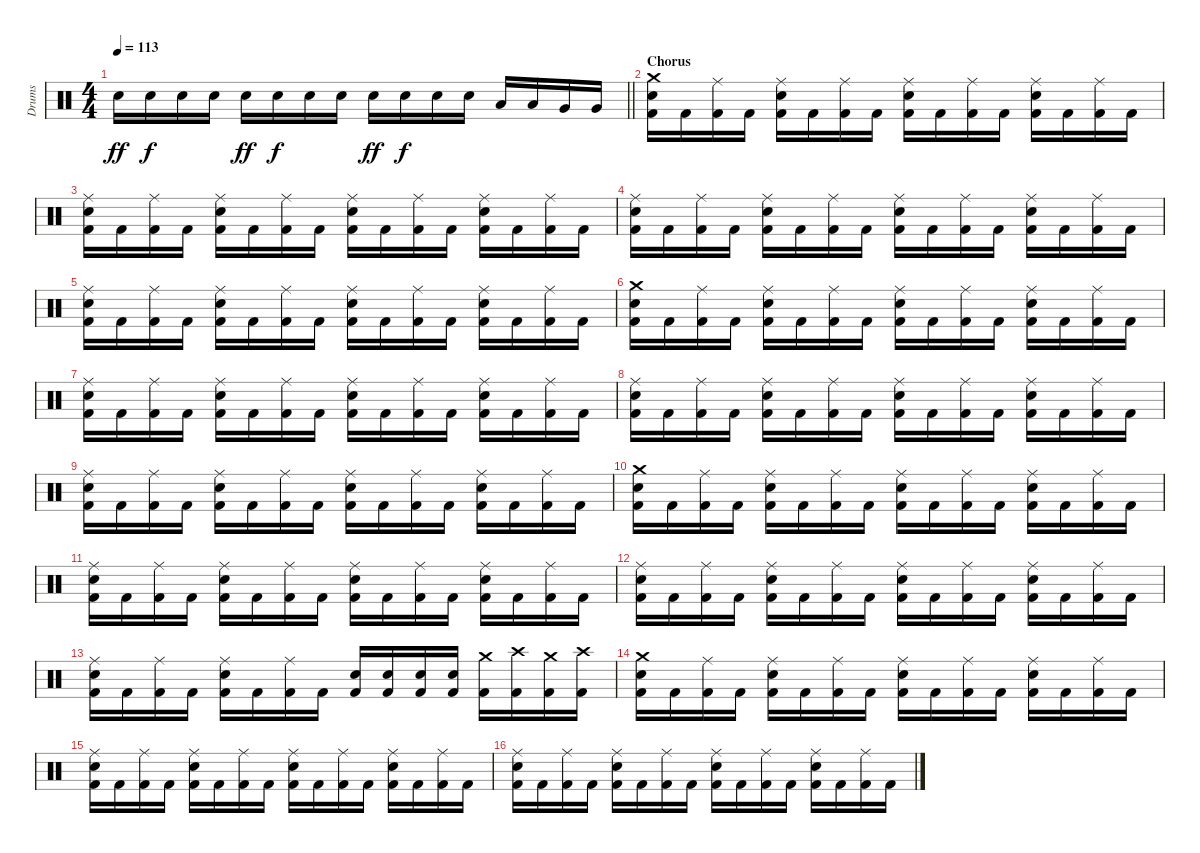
\track ("Drums" "Drums") {instrument percussion}
\staff {score}
\articulation defaults
\ts (4 4)
\tempo 113
\clef neutral
\barLineRight lightlight
\ks c "Snare (hit) 2".16{dy ff} "Snare (hit) 2".16{dy f} "Snare (hit) 2".16 "Snare (hit) 2".16 "Snare (hit) 2".16{dy ff} "Snare (hit) 2".16{dy f} "Snare (hit) 2".16 "Snare (hit) 2".16 "Snare (hit) 2".16{dy ff} "Snare (hit) 2".16{dy f} "Snare (hit) 2".16 "Snare (hit) 2".16 "Low Tom (hit)".16 "Low Tom (hit)".16 "Very Low Tom (hit)".16 "Very Low Tom (hit)".16
|
\section ("" "Chorus")
("Kick (hit) 2" "Snare (hit) 2" "Crash medium (hit)").16 "Kick (hit) 2".16 ("Kick (hit) 2" "Ride (middle)").16 "Kick (hit) 2".16 ("Kick (hit) 2" "Snare (hit) 2" "Ride (middle)").16 "Kick (hit) 2".16 ("Kick (hit) 2" "Ride (middle)").16 "Kick (hit) 2".16 ("Kick (hit) 2" "Snare (hit) 2" "Ride (middle)").16 "Kick (hit) 2".16 ("Kick (hit) 2" "Ride (middle)").16 "Kick (hit) 2".16 ("Kick (hit) 2" "Snare (hit) 2" "Ride (middle)").16 "Kick (hit) 2".16 ("Kick (hit) 2" "Ride (middle)").16 "Kick (hit) 2".16 |
("Kick (hit) 2" "Snare (hit) 2" "Ride (middle)").16 "Kick (hit) 2".16 ("Kick (hit) 2" "Ride (middle)").16 "Kick (hit) 2".16 ("Kick (hit) 2" "Snare (hit) 2" "Ride (middle)").16 "Kick (hit) 2".16 ("Kick (hit) 2" "Ride (middle)").16 "Kick (hit) 2".16 ("Kick (hit) 2" "Snare (hit) 2" "Ride (middle)").16 "Kick (hit) 2".16 ("Kick (hit) 2" "Ride (middle)").16 "Kick (hit) 2".16 ("Kick (hit) 2" "Snare (hit) 2" "Ride (middle)").16 "Kick (hit) 2".16 ("Kick (hit) 2" "Ride (middle)").16 "Kick (hit) 2".16 |
("Kick (hit) 2" "Snare (hit) 2" "Ride (middle)").16 "Kick (hit) 2".16 ("Kick (hit) 2" "Ride (middle)").16 "Kick (hit) 2".16 ("Kick (hit) 2" "Snare (hit) 2" "Ride (middle)").16 "Kick (hit) 2".16 ("Kick (hit) 2" "Ride (middle)").16 "Kick (hit) 2".16 ("Kick (hit) 2" "Snare (hit) 2" "Ride (middle)").16 "Kick (hit) 2".16 ("Kick (hit) 2" "Ride (middle)").16 "Kick (hit) 2".16 ("Kick (hit) 2" "Snare (hit) 2" "Ride (middle)").16 "Kick (hit) 2".16 ("Kick (hit) 2" "Ride (middle)").16 "Kick (hit) 2".16 |
("Kick (hit) 2" "Snare (hit) 2" "Ride (middle)").16 "Kick (hit) 2".16 ("Kick (hit) 2" "Ride (middle)").16 "Kick (hit) 2".16 ("Kick (hit) 2" "Snare (hit) 2" "Ride (middle)").16 "Kick (hit) 2".16 ("Kick (hit) 2" "Ride (middle)").16 "Kick (hit) 2".16 ("Kick (hit) 2" "Snare (hit) 2" "Ride (middle)").16 "Kick (hit) 2".16 ("Kick (hit) 2" "Ride (middle)").16 "Kick (hit) 2".16 ("Kick (hit) 2" "Snare (hit) 2" "Ride (middle)").16 "Kick (hit) 2".16 ("Kick (hit) 2" "Ride (middle)").16 "Kick (hit) 2".16 |
("Kick (hit) 2" "Snare (hit) 2" "Crash medium (hit)").16 "Kick (hit) 2".16 ("Kick (hit) 2" "Ride (middle)").16 "Kick (hit) 2".16 ("Kick (hit) 2" "Snare (hit) 2" "Ride (middle)").16 "Kick (hit) 2".16 ("Kick (hit) 2" "Ride (middle)").16 "Kick (hit) 2".16 ("Kick (hit) 2" "Snare (hit) 2" "Ride (middle)").16 "Kick (hit) 2".16 ("Kick (hit) 2" "Ride (middle)").16 "Kick (hit) 2".16 ("Kick (hit) 2" "Snare (hit) 2" "Ride (middle)").16 "Kick (hit) 2".16 ("Kick (hit) 2" "Ride (middle)").16 "Kick (hit) 2".16 |
("Kick (hit) 2" "Snare (hit) 2" "Ride (middle)").16 "Kick (hit) 2".16 ("Kick (hit) 2" "Ride (middle)").16 "Kick (hit) 2".16 ("Kick (hit) 2" "Snare (hit) 2" "Ride (middle)").16 "Kick (hit) 2".16 ("Kick (hit) 2" "Ride (middle)").16 "Kick (hit) 2".16 ("Kick (hit) 2" "Snare (hit) 2" "Ride (middle)").16 "Kick (hit) 2".16 ("Kick (hit) 2" "Ride (middle)").16 "Kick (hit) 2".16 ("Kick (hit) 2" "Snare (hit) 2" "Ride (middle)").16 "Kick (hit) 2".16 ("Kick (hit) 2" "Ride (middle)").16 "Kick (hit) 2".16 |
("Kick (hit) 2" "Snare (hit) 2" "Ride (middle)").16 "Kick (hit) 2".16 ("Kick (hit) 2" "Ride (middle)").16 "Kick (hit) 2".16 ("Kick (hit) 2" "Snare (hit) 2" "Ride (middle)").16 "Kick (hit) 2".16 ("Kick (hit) 2" "Ride (middle)").16 "Kick (hit) 2".16 ("Kick (hit) 2" "Snare (hit) 2" "Ride (middle)").16 "Kick (hit) 2".16 ("Kick (hit) 2" "Ride (middle)").16 "Kick (hit) 2".16 ("Kick (hit) 2" "Snare (hit) 2" "Ride (middle)").16 "Kick (hit) 2".16 ("Kick (hit) 2" "Ride (middle)").16 "Kick (hit) 2".16 |
("Kick (hit) 2" "Snare (hit) 2" "Ride (middle)").16 "Kick (hit) 2".16 ("Kick (hit) 2" "Ride (middle)").16 "Kick (hit) 2".16 ("Kick (hit) 2" "Snare (hit) 2" "Ride (middle)").16 "Kick (hit) 2".16 ("Kick (hit) 2" "Ride (middle)").16 "Kick (hit) 2".16 ("Kick (hit) 2" "Snare (hit) 2" "Ride (middle)").16 "Kick (hit) 2".16 ("Kick (hit) 2" "Ride (middle)").16 "Kick (hit) 2".16 ("Kick (hit) 2" "Snare (hit) 2" "Ride (middle)").16 "Kick (hit) 2".16 ("Kick (hit) 2" "Ride (middle)").16 "Kick (hit) 2".16 |
("Kick (hit) 2" "Snare (hit) 2" "Crash medium (hit)").16 "Kick (hit) 2".16 ("Kick (hit) 2" "Ride (middle)").16 "Kick (hit) 2".16 ("Kick (hit) 2" "Snare (hit) 2" "Ride (middle)").16 "Kick (hit) 2".16 ("Kick (hit) 2" "Ride (middle)").16 "Kick (hit) 2".16 ("Kick (hit) 2" "Snare (hit) 2" "Ride (middle)").16 "Kick (hit) 2".16 ("Kick (hit) 2" "Ride (middle)").16 "Kick (hit) 2".16 ("Kick (hit) 2" "Snare (hit) 2" "Ride (middle)").16 "Kick (hit) 2".16 ("Kick (hit) 2" "Ride (middle)").16 "Kick (hit) 2".16 |
("Kick (hit) 2" "Snare (hit) 2" "Ride (middle)").16 "Kick (hit) 2".16 ("Kick (hit) 2" "Ride (middle)").16 "Kick (hit) 2".16 ("Kick (hit) 2" "Snare (hit) 2" "Ride (middle)").16 "Kick (hit) 2".16 ("Kick (hit) 2" "Ride (middle)").16 "Kick (hit) 2".16 ("Kick (hit) 2" "Snare (hit) 2" "Ride (middle)").16 "Kick (hit) 2".16 ("Kick (hit) 2" "Ride (middle)").16 "Kick (hit) 2".16 ("Kick (hit) 2" "Snare (hit) 2" "Ride (middle)").16 "Kick (hit) 2".16 ("Kick (hit) 2" "Ride (middle)").16 "Kick (hit) 2".16 |
("Kick (hit) 2" "Snare (hit) 2" "Ride (middle)").16 "Kick (hit) 2".16 ("Kick (hit) 2" "Ride (middle)").16 "Kick (hit) 2".16 ("Kick (hit) 2" "Snare (hit) 2" "Ride (middle)").16 "Kick (hit) 2".16 ("Kick (hit) 2" "Ride (middle)").16 "Kick (hit) 2".16 ("Kick (hit) 2" "Snare (hit) 2" "Ride (middle)").16 "Kick (hit) 2".16 ("Kick (hit) 2" "Ride (middle)").16 "Kick (hit) 2".16 ("Kick (hit) 2" "Snare (hit) 2" "Ride (middle)").16 "Kick (hit) 2".16 ("Kick (hit) 2" "Ride (middle)").16 "Kick (hit) 2".16 |
("Kick (hit) 2" "Snare (hit) 2" "Ride (middle)").16 "Kick (hit) 2".16 ("Kick (hit) 2" "Ride (middle)").16 "Kick (hit) 2".16 ("Kick (hit) 2" "Snare (hit) 2" "Ride (middle)").16 "Kick (hit) 2".16 ("Kick (hit) 2" "Ride (middle)").16 "Kick (hit) 2".16 ("Kick (hit) 2" "Snare (hit) 2").16 ("Kick (hit) 2" "Snare (hit) 2").16 ("Kick (hit) 2" "Snare (hit) 2").16 ("Kick (hit) 2" "Snare (hit) 2").16 ("Kick (hit) 2" "Crash medium (hit)").16 ("Kick (hit) 2" "Crash high (hit)").16 ("Kick (hit) 2" "Crash medium (hit)").16 ("Kick (hit) 2" "Crash high (hit)").16 |
("Kick (hit) 2" "Snare (hit) 2" "Crash medium (hit)").16 "Kick (hit) 2".16 ("Kick (hit) 2" "Ride (middle)").16 "Kick (hit) 2".16 ("Kick (hit) 2" "Snare (hit) 2" "Ride (middle)").16 "Kick (hit) 2".16 ("Kick (hit) 2" "Ride (middle)").16 "Kick (hit) 2".16 ("Kick (hit) 2" "Snare (hit) 2" "Ride (middle)").16 "Kick (hit) 2".16 ("Kick (hit) 2" "Ride (middle)").16 "Kick (hit) 2".16 ("Kick (hit) 2" "Snare (hit) 2" "Ride (middle)").16 "Kick (hit) 2".16 ("Kick (hit) 2" "Ride (middle)").16 "Kick (hit) 2".16 |
("Kick (hit) 2" "Snare (hit) 2" "Ride (middle)").16 "Kick (hit) 2".16 ("Kick (hit) 2" "Ride (middle)").16 "Kick (hit) 2".16 ("Kick (hit) 2" "Snare (hit) 2" "Ride (middle)").16 "Kick (hit) 2".16 ("Kick (hit) 2" "Ride (middle)").16 "Kick (hit) 2".16 ("Kick (hit) 2" "Snare (hit) 2" "Ride (middle)").16 "Kick (hit) 2".16 ("Kick (hit) 2" "Ride (middle)").16 "Kick (hit) 2".16 ("Kick (hit) 2" "Snare (hit) 2" "Ride (middle)").16 "Kick (hit) 2".16 ("Kick (hit) 2" "Ride (middle)").16 "Kick (hit) 2".16 |
("Kick (hit) 2" "Snare (hit) 2" "Ride (middle)").16 "Kick (hit) 2".16 ("Kick (hit) 2" "Ride (middle)").16 "Kick (hit) 2".16 ("Kick (hit) 2" "Snare (hit) 2" "Ride (middle)").16 "Kick (hit) 2".16 ("Kick (hit) 2" "Ride (middle)").16 "Kick (hit) 2".16 ("Kick (hit) 2" "Snare (hit) 2" "Ride (middle)").16 "Kick (hit) 2".16 ("Kick (hit) 2" "Ride (middle)").16 "Kick (hit) 2".16 ("Kick (hit) 2" "Snare (hit) 2" "Ride (middle)").16 "Kick (hit) 2".16 ("Kick (hit) 2" "Ride (middle)").16 "Kick (hit) 2".16
